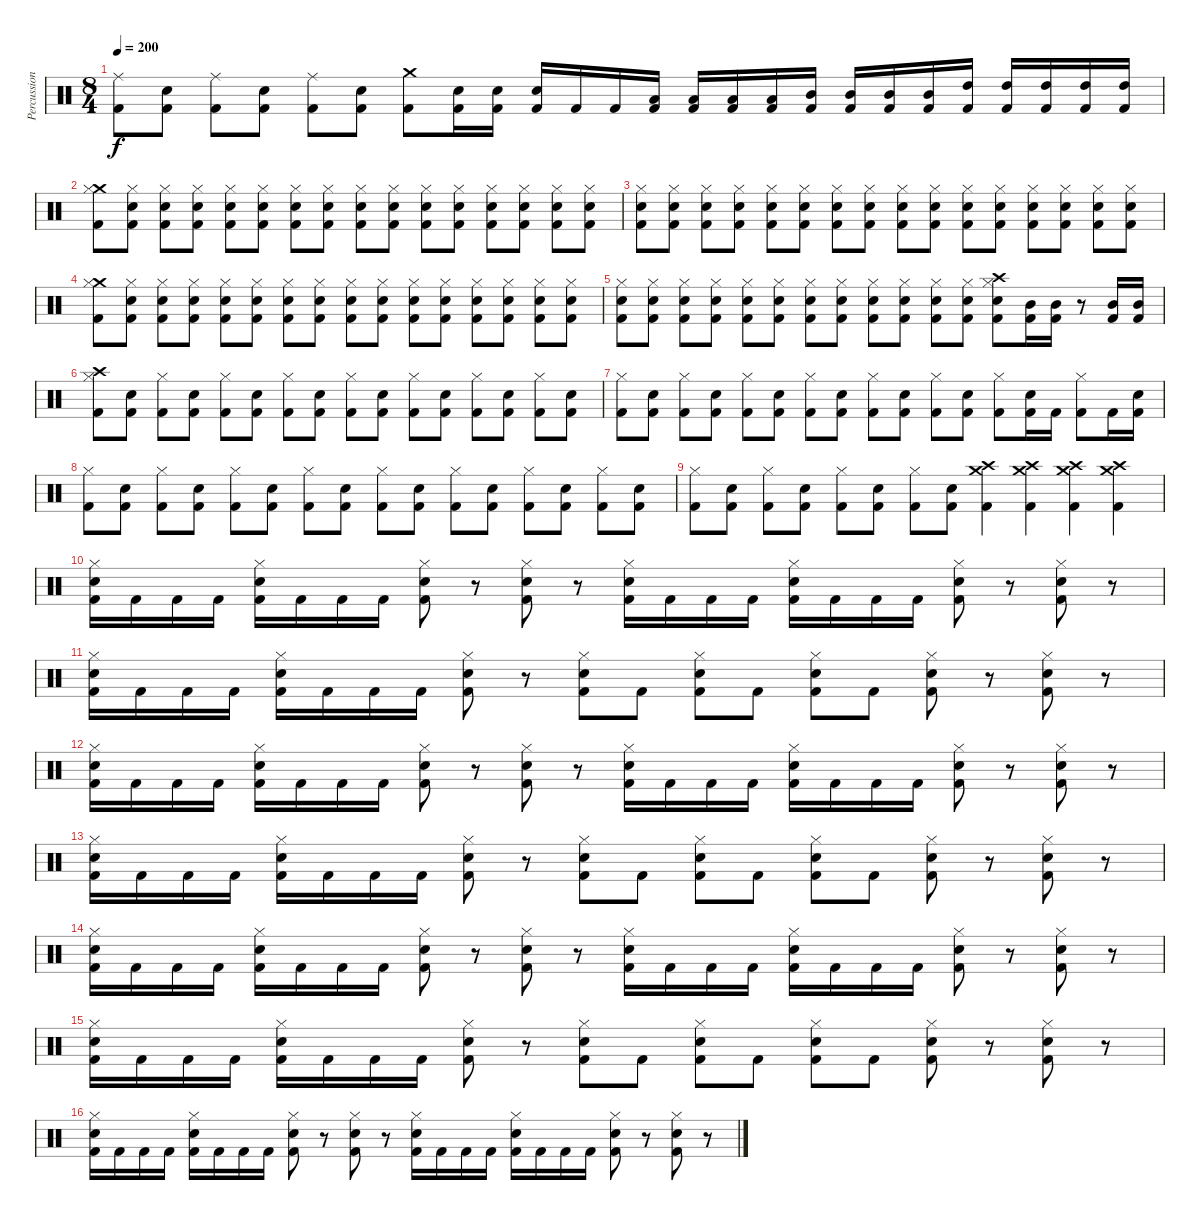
\track ("Percussion" "Percussion") {instrument percussion}
\staff {score}
\articulation defaults
\ts (8 4)
\tempo 200
\clef neutral
\ks c
("Ride (middle)" "Kick (hit) 2").8{dy f} ("Electric Snare (hit)" "Kick (hit) 2").8 ("Ride (middle)" "Kick (hit) 2").8 ("Electric Snare (hit)" "Kick (hit) 2").8 ("Ride (middle)" "Kick (hit) 2").8 ("Electric Snare (hit)" "Kick (hit) 2").8 ("Crash medium (hit)" "Kick (hit) 2").8 ("Electric Snare (hit)" "Kick (hit) 2").16 ("Electric Snare (hit)" "Kick (hit) 2").16 ("Electric Snare (hit)" "Kick (hit) 2").16 "Kick (hit) 2".16 "Kick (hit) 2".16 ("Low Tom (hit)" "Kick (hit) 2").16 ("Low Tom (hit)" "Kick (hit) 2").16 ("Low Tom (hit)" "Kick (hit) 2").16 ("Low Tom (hit)" "Kick (hit) 2").16 ("Mid Tom (hit)" "Kick (hit) 2").16 ("Mid Tom (hit)" "Kick (hit) 2").16 ("Mid Tom (hit)" "Kick (hit) 2").16 ("Mid Tom (hit)" "Kick (hit) 2").16 ("High Tom (hit)" "Kick (hit) 2").16 ("High Tom (hit)" "Kick (hit) 2").16 ("High Tom (hit)" "Kick (hit) 2").16 ("High Tom (hit)" "Kick (hit) 2").16 ("High Tom (hit)" "Kick (hit) 2").16 |
("Crash medium (hit)" "Hi-Hat (closed)" "Kick (hit) 2").8 ("Hi-Hat (closed)" "Electric Snare (hit)" "Kick (hit) 2").8 ("Hi-Hat (closed)" "Electric Snare (hit)" "Kick (hit) 2").8 ("Hi-Hat (closed)" "Electric Snare (hit)" "Kick (hit) 2").8 ("Hi-Hat (closed)" "Electric Snare (hit)" "Kick (hit) 2").8 ("Hi-Hat (closed)" "Electric Snare (hit)" "Kick (hit) 2").8 ("Hi-Hat (closed)" "Electric Snare (hit)" "Kick (hit) 2").8 ("Hi-Hat (closed)" "Electric Snare (hit)" "Kick (hit) 2").8 ("Hi-Hat (closed)" "Electric Snare (hit)" "Kick (hit) 2").8 ("Hi-Hat (closed)" "Electric Snare (hit)" "Kick (hit) 2").8 ("Hi-Hat (closed)" "Electric Snare (hit)" "Kick (hit) 2").8 ("Hi-Hat (closed)" "Electric Snare (hit)" "Kick (hit) 2").8 ("Hi-Hat (closed)" "Electric Snare (hit)" "Kick (hit) 2").8 ("Hi-Hat (closed)" "Electric Snare (hit)" "Kick (hit) 2").8 ("Hi-Hat (closed)" "Electric Snare (hit)" "Kick (hit) 2").8 ("Hi-Hat (closed)" "Electric Snare (hit)" "Kick (hit) 2").8 |
("Hi-Hat (closed)" "Electric Snare (hit)" "Kick (hit) 2").8 ("Hi-Hat (closed)" "Electric Snare (hit)" "Kick (hit) 2").8 ("Hi-Hat (closed)" "Electric Snare (hit)" "Kick (hit) 2").8 ("Hi-Hat (closed)" "Electric Snare (hit)" "Kick (hit) 2").8 ("Hi-Hat (closed)" "Electric Snare (hit)" "Kick (hit) 2").8 ("Hi-Hat (closed)" "Electric Snare (hit)" "Kick (hit) 2").8 ("Hi-Hat (closed)" "Electric Snare (hit)" "Kick (hit) 2").8 ("Hi-Hat (closed)" "Electric Snare (hit)" "Kick (hit) 2").8 ("Hi-Hat (closed)" "Electric Snare (hit)" "Kick (hit) 2").8 ("Hi-Hat (closed)" "Electric Snare (hit)" "Kick (hit) 2").8 ("Hi-Hat (closed)" "Electric Snare (hit)" "Kick (hit) 2").8 ("Hi-Hat (closed)" "Electric Snare (hit)" "Kick (hit) 2").8 ("Hi-Hat (closed)" "Electric Snare (hit)" "Kick (hit) 2").8 ("Hi-Hat (closed)" "Electric Snare (hit)" "Kick (hit) 2").8 ("Hi-Hat (closed)" "Electric Snare (hit)" "Kick (hit) 2").8 ("Hi-Hat (closed)" "Electric Snare (hit)" "Kick (hit) 2").8 |
("Crash medium (hit)" "Hi-Hat (closed)" "Kick (hit) 2").8 ("Hi-Hat (closed)" "Electric Snare (hit)" "Kick (hit) 2").8 ("Hi-Hat (closed)" "Electric Snare (hit)" "Kick (hit) 2").8 ("Hi-Hat (closed)" "Electric Snare (hit)" "Kick (hit) 2").8 ("Hi-Hat (closed)" "Electric Snare (hit)" "Kick (hit) 2").8 ("Hi-Hat (closed)" "Electric Snare (hit)" "Kick (hit) 2").8 ("Hi-Hat (closed)" "Electric Snare (hit)" "Kick (hit) 2").8 ("Hi-Hat (closed)" "Electric Snare (hit)" "Kick (hit) 2").8 ("Hi-Hat (closed)" "Electric Snare (hit)" "Kick (hit) 2").8 ("Hi-Hat (closed)" "Electric Snare (hit)" "Kick (hit) 2").8 ("Hi-Hat (closed)" "Electric Snare (hit)" "Kick (hit) 2").8 ("Hi-Hat (closed)" "Electric Snare (hit)" "Kick (hit) 2").8 ("Hi-Hat (closed)" "Electric Snare (hit)" "Kick (hit) 2").8 ("Hi-Hat (closed)" "Electric Snare (hit)" "Kick (hit) 2").8 ("Hi-Hat (closed)" "Electric Snare (hit)" "Kick (hit) 2").8 ("Hi-Hat (closed)" "Electric Snare (hit)" "Kick (hit) 2").8 |
("Hi-Hat (closed)" "Electric Snare (hit)" "Kick (hit) 2").8 ("Hi-Hat (closed)" "Electric Snare (hit)" "Kick (hit) 2").8 ("Hi-Hat (closed)" "Electric Snare (hit)" "Kick (hit) 2").8 ("Hi-Hat (closed)" "Electric Snare (hit)" "Kick (hit) 2").8 ("Hi-Hat (closed)" "Electric Snare (hit)" "Kick (hit) 2").8 ("Hi-Hat (closed)" "Electric Snare (hit)" "Kick (hit) 2").8 ("Hi-Hat (closed)" "Electric Snare (hit)" "Kick (hit) 2").8 ("Hi-Hat (closed)" "Electric Snare (hit)" "Kick (hit) 2").8 ("Hi-Hat (closed)" "Electric Snare (hit)" "Kick (hit) 2").8 ("Hi-Hat (closed)" "Electric Snare (hit)" "Kick (hit) 2").8 ("Hi-Hat (closed)" "Electric Snare (hit)" "Kick (hit) 2").8 ("Hi-Hat (closed)" "Electric Snare (hit)" "Kick (hit) 2").8 ("Crash high (hit)" "Hi-Hat (closed)" "Electric Snare (hit)" "Kick (hit) 2").8 ("Mid Tom (hit)" "Kick (hit) 2").16 ("Mid Tom (hit)" "Kick (hit) 2").16 r.8 ("Mid Tom (hit)" "Kick (hit) 2").16 ("Mid Tom (hit)" "Kick (hit) 2").16 |
("Crash high (hit)" "Hi-Hat (closed)" "Kick (hit) 2").8 ("Electric Snare (hit)" "Kick (hit) 2").8 ("Hi-Hat (closed)" "Kick (hit) 2").8 ("Electric Snare (hit)" "Kick (hit) 2").8 ("Hi-Hat (closed)" "Kick (hit) 2").8 ("Electric Snare (hit)" "Kick (hit) 2").8 ("Hi-Hat (closed)" "Kick (hit) 2").8 ("Electric Snare (hit)" "Kick (hit) 2").8 ("Hi-Hat (closed)" "Kick (hit) 2").8 ("Electric Snare (hit)" "Kick (hit) 2").8 ("Hi-Hat (closed)" "Kick (hit) 2").8 ("Electric Snare (hit)" "Kick (hit) 2").8 ("Hi-Hat (closed)" "Kick (hit) 2").8 ("Electric Snare (hit)" "Kick (hit) 2").8 ("Hi-Hat (closed)" "Kick (hit) 2").8 ("Electric Snare (hit)" "Kick (hit) 2").8 |
("Hi-Hat (closed)" "Kick (hit) 2").8 ("Electric Snare (hit)" "Kick (hit) 2").8 ("Hi-Hat (closed)" "Kick (hit) 2").8 ("Electric Snare (hit)" "Kick (hit) 2").8 ("Hi-Hat (closed)" "Kick (hit) 2").8 ("Electric Snare (hit)" "Kick (hit) 2").8 ("Hi-Hat (closed)" "Kick (hit) 2").8 ("Electric Snare (hit)" "Kick (hit) 2").8 ("Hi-Hat (closed)" "Kick (hit) 2").8 ("Electric Snare (hit)" "Kick (hit) 2").8 ("Hi-Hat (closed)" "Kick (hit) 2").8 ("Electric Snare (hit)" "Kick (hit) 2").8 ("Hi-Hat (closed)" "Kick (hit) 2").8 ("Electric Snare (hit)" "Kick (hit) 2").16 "Kick (hit) 2".16 ("Hi-Hat (closed)" "Kick (hit) 2").8 "Kick (hit) 2".16 ("Electric Snare (hit)" "Kick (hit) 2").16 |
("Hi-Hat (closed)" "Kick (hit) 2").8 ("Electric Snare (hit)" "Kick (hit) 2").8 ("Hi-Hat (closed)" "Kick (hit) 2").8 ("Electric Snare (hit)" "Kick (hit) 2").8 ("Hi-Hat (closed)" "Kick (hit) 2").8 ("Electric Snare (hit)" "Kick (hit) 2").8 ("Hi-Hat (closed)" "Kick (hit) 2").8 ("Electric Snare (hit)" "Kick (hit) 2").8 ("Hi-Hat (closed)" "Kick (hit) 2").8 ("Electric Snare (hit)" "Kick (hit) 2").8 ("Hi-Hat (closed)" "Kick (hit) 2").8 ("Electric Snare (hit)" "Kick (hit) 2").8 ("Hi-Hat (closed)" "Kick (hit) 2").8 ("Electric Snare (hit)" "Kick (hit) 2").8 ("Hi-Hat (closed)" "Kick (hit) 2").8 ("Electric Snare (hit)" "Kick (hit) 2").8 |
("Hi-Hat (closed)" "Kick (hit) 2").8 ("Electric Snare (hit)" "Kick (hit) 2").8 ("Hi-Hat (closed)" "Kick (hit) 2").8 ("Electric Snare (hit)" "Kick (hit) 2").8 ("Hi-Hat (closed)" "Kick (hit) 2").8 ("Electric Snare (hit)" "Kick (hit) 2").8 ("Hi-Hat (closed)" "Kick (hit) 2").8 ("Electric Snare (hit)" "Kick (hit) 2").8 ("Crash high (hit)" "Crash medium (hit)" "Kick (hit) 2").4 ("Crash high (hit)" "Crash medium (hit)" "Kick (hit) 2").4 ("Crash high (hit)" "Crash medium (hit)" "Kick (hit) 2").4 ("Crash high (hit)" "Crash medium (hit)" "Kick (hit) 2").4 |
("Hi-Hat (closed)" "Electric Snare (hit)" "Kick (hit) 2").16 "Kick (hit) 2".16 "Kick (hit) 2".16 "Kick (hit) 2".16 ("Hi-Hat (closed)" "Electric Snare (hit)" "Kick (hit) 2").16 "Kick (hit) 2".16 "Kick (hit) 2".16 "Kick (hit) 2".16 ("Hi-Hat (closed)" "Electric Snare (hit)" "Kick (hit) 2").8 r.8 ("Hi-Hat (closed)" "Electric Snare (hit)" "Kick (hit) 2").8 r.8 ("Hi-Hat (closed)" "Electric Snare (hit)" "Kick (hit) 2").16 "Kick (hit) 2".16 "Kick (hit) 2".16 "Kick (hit) 2".16 ("Hi-Hat (closed)" "Electric Snare (hit)" "Kick (hit) 2").16 "Kick (hit) 2".16 "Kick (hit) 2".16 "Kick (hit) 2".16 ("Hi-Hat (closed)" "Electric Snare (hit)" "Kick (hit) 2").8 r.8 ("Hi-Hat (closed)" "Electric Snare (hit)" "Kick (hit) 2").8 r.8 |
("Hi-Hat (closed)" "Electric Snare (hit)" "Kick (hit) 2").16 "Kick (hit) 2".16 "Kick (hit) 2".16 "Kick (hit) 2".16 ("Hi-Hat (closed)" "Electric Snare (hit)" "Kick (hit) 2").16 "Kick (hit) 2".16 "Kick (hit) 2".16 "Kick (hit) 2".16 ("Hi-Hat (closed)" "Electric Snare (hit)" "Kick (hit) 2").8 r.8 ("Hi-Hat (closed)" "Electric Snare (hit)" "Kick (hit) 2").8 "Kick (hit) 2".8 ("Hi-Hat (closed)" "Electric Snare (hit)" "Kick (hit) 2").8 "Kick (hit) 2".8 ("Hi-Hat (closed)" "Electric Snare (hit)" "Kick (hit) 2").8 "Kick (hit) 2".8 ("Hi-Hat (closed)" "Electric Snare (hit)" "Kick (hit) 2").8 r.8 ("Hi-Hat (closed)" "Electric Snare (hit)" "Kick (hit) 2").8 r.8 |
("Hi-Hat (closed)" "Electric Snare (hit)" "Kick (hit) 2").16 "Kick (hit) 2".16 "Kick (hit) 2".16 "Kick (hit) 2".16 ("Hi-Hat (closed)" "Electric Snare (hit)" "Kick (hit) 2").16 "Kick (hit) 2".16 "Kick (hit) 2".16 "Kick (hit) 2".16 ("Hi-Hat (closed)" "Electric Snare (hit)" "Kick (hit) 2").8 r.8 ("Hi-Hat (closed)" "Electric Snare (hit)" "Kick (hit) 2").8 r.8 ("Hi-Hat (closed)" "Electric Snare (hit)" "Kick (hit) 2").16 "Kick (hit) 2".16 "Kick (hit) 2".16 "Kick (hit) 2".16 ("Hi-Hat (closed)" "Electric Snare (hit)" "Kick (hit) 2").16 "Kick (hit) 2".16 "Kick (hit) 2".16 "Kick (hit) 2".16 ("Hi-Hat (closed)" "Electric Snare (hit)" "Kick (hit) 2").8 r.8 ("Hi-Hat (closed)" "Electric Snare (hit)" "Kick (hit) 2").8 r.8 |
("Hi-Hat (closed)" "Electric Snare (hit)" "Kick (hit) 2").16 "Kick (hit) 2".16 "Kick (hit) 2".16 "Kick (hit) 2".16 ("Hi-Hat (closed)" "Electric Snare (hit)" "Kick (hit) 2").16 "Kick (hit) 2".16 "Kick (hit) 2".16 "Kick (hit) 2".16 ("Hi-Hat (closed)" "Electric Snare (hit)" "Kick (hit) 2").8 r.8 ("Hi-Hat (closed)" "Electric Snare (hit)" "Kick (hit) 2").8 "Kick (hit) 2".8 ("Hi-Hat (closed)" "Electric Snare (hit)" "Kick (hit) 2").8 "Kick (hit) 2".8 ("Hi-Hat (closed)" "Electric Snare (hit)" "Kick (hit) 2").8 "Kick (hit) 2".8 ("Hi-Hat (closed)" "Electric Snare (hit)" "Kick (hit) 2").8 r.8 ("Hi-Hat (closed)" "Electric Snare (hit)" "Kick (hit) 2").8 r.8 |
("Hi-Hat (closed)" "Electric Snare (hit)" "Kick (hit) 2").16 "Kick (hit) 2".16 "Kick (hit) 2".16 "Kick (hit) 2".16 ("Hi-Hat (closed)" "Electric Snare (hit)" "Kick (hit) 2").16 "Kick (hit) 2".16 "Kick (hit) 2".16 "Kick (hit) 2".16 ("Hi-Hat (closed)" "Electric Snare (hit)" "Kick (hit) 2").8 r.8 ("Hi-Hat (closed)" "Electric Snare (hit)" "Kick (hit) 2").8 r.8 ("Hi-Hat (closed)" "Electric Snare (hit)" "Kick (hit) 2").16 "Kick (hit) 2".16 "Kick (hit) 2".16 "Kick (hit) 2".16 ("Hi-Hat (closed)" "Electric Snare (hit)" "Kick (hit) 2").16 "Kick (hit) 2".16 "Kick (hit) 2".16 "Kick (hit) 2".16 ("Hi-Hat (closed)" "Electric Snare (hit)" "Kick (hit) 2").8 r.8 ("Hi-Hat (closed)" "Electric Snare (hit)" "Kick (hit) 2").8 r.8 |
("Hi-Hat (closed)" "Electric Snare (hit)" "Kick (hit) 2").16 "Kick (hit) 2".16 "Kick (hit) 2".16 "Kick (hit) 2".16 ("Hi-Hat (closed)" "Electric Snare (hit)" "Kick (hit) 2").16 "Kick (hit) 2".16 "Kick (hit) 2".16 "Kick (hit) 2".16 ("Hi-Hat (closed)" "Electric Snare (hit)" "Kick (hit) 2").8 r.8 ("Hi-Hat (closed)" "Electric Snare (hit)" "Kick (hit) 2").8 "Kick (hit) 2".8 ("Hi-Hat (closed)" "Electric Snare (hit)" "Kick (hit) 2").8 "Kick (hit) 2".8 ("Hi-Hat (closed)" "Electric Snare (hit)" "Kick (hit) 2").8 "Kick (hit) 2".8 ("Hi-Hat (closed)" "Electric Snare (hit)" "Kick (hit) 2").8 r.8 ("Hi-Hat (closed)" "Electric Snare (hit)" "Kick (hit) 2").8 r.8 |
("Hi-Hat (closed)" "Electric Snare (hit)" "Kick (hit) 2").16 "Kick (hit) 2".16 "Kick (hit) 2".16 "Kick (hit) 2".16 ("Hi-Hat (closed)" "Electric Snare (hit)" "Kick (hit) 2").16 "Kick (hit) 2".16 "Kick (hit) 2".16 "Kick (hit) 2".16 ("Hi-Hat (closed)" "Electric Snare (hit)" "Kick (hit) 2").8 r.8 ("Hi-Hat (closed)" "Electric Snare (hit)" "Kick (hit) 2").8 r.8 ("Hi-Hat (closed)" "Electric Snare (hit)" "Kick (hit) 2").16 "Kick (hit) 2".16 "Kick (hit) 2".16 "Kick (hit) 2".16 ("Hi-Hat (closed)" "Electric Snare (hit)" "Kick (hit) 2").16 "Kick (hit) 2".16 "Kick (hit) 2".16 "Kick (hit) 2".16 ("Hi-Hat (closed)" "Electric Snare (hit)" "Kick (hit) 2").8 r.8 ("Hi-Hat (closed)" "Electric Snare (hit)" "Kick (hit) 2").8 r.8
